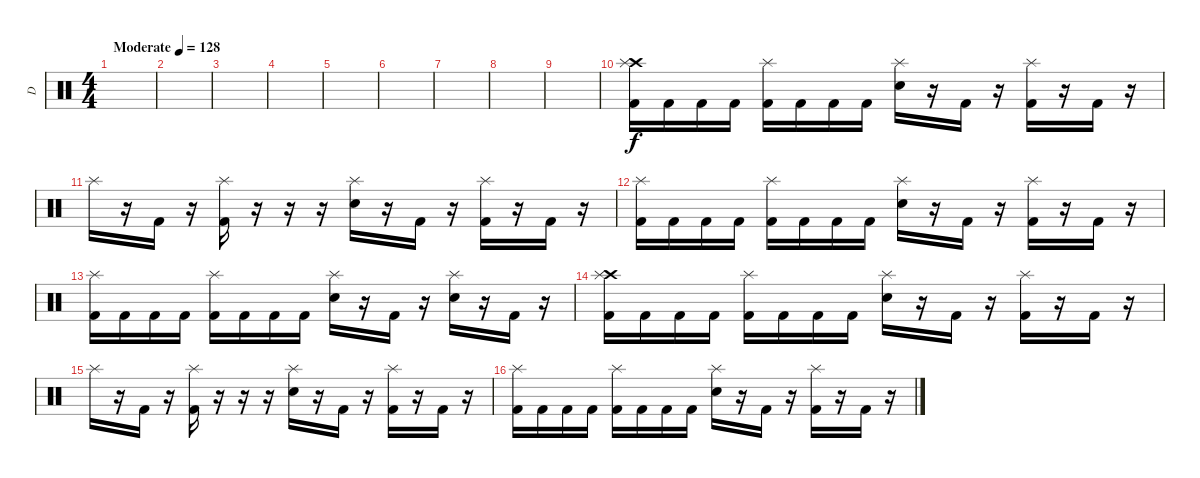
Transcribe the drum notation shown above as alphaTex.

\track ("D" "D") {instrument percussion}
\staff {score}
\articulation defaults
\ts (4 4)
\tempo (128 "Moderate")
\clef neutral
\ks c
|
|
|
|
|
|
|
|
|
("Crash high (hit)" "Kick (hit) 2" "Splash (hit)").16 "Kick (hit) 2".16 "Kick (hit) 2".16 "Kick (hit) 2".16 ("Kick (hit) 2" "Splash (hit)").16 "Kick (hit) 2".16 "Kick (hit) 2".16 "Kick (hit) 2".16 ("Electric Snare (hit)" "Splash (hit)").16 r.16 "Kick (hit) 2".16 r.16 ("Kick (hit) 2" "Splash (hit)").16 r.16 "Kick (hit) 2".16 r.16 |
"Splash (hit)".16 r.16 "Kick (hit) 2".16 r.16 ("Kick (hit) 2" "Splash (hit)").16 r.16 r.16 r.16 ("Electric Snare (hit)" "Splash (hit)").16 r.16 "Kick (hit) 2".16 r.16 ("Kick (hit) 2" "Splash (hit)").16 r.16 "Kick (hit) 2".16 r.16 |
("Kick (hit) 2" "Splash (hit)").16 "Kick (hit) 2".16 "Kick (hit) 2".16 "Kick (hit) 2".16 ("Kick (hit) 2" "Splash (hit)").16 "Kick (hit) 2".16 "Kick (hit) 2".16 "Kick (hit) 2".16 ("Electric Snare (hit)" "Splash (hit)").16 r.16 "Kick (hit) 2".16 r.16 ("Kick (hit) 2" "Splash (hit)").16 r.16 "Kick (hit) 2".16 r.16 |
("Kick (hit) 2" "Splash (hit)").16 "Kick (hit) 2".16 "Kick (hit) 2".16 "Kick (hit) 2".16 ("Kick (hit) 2" "Splash (hit)").16 "Kick (hit) 2".16 "Kick (hit) 2".16 "Kick (hit) 2".16 ("Electric Snare (hit)" "Splash (hit)").16 r.16 "Kick (hit) 2".16 r.16 ("Electric Snare (hit)" "Splash (hit)").16 r.16 "Kick (hit) 2".16 r.16 |
("Crash high (hit)" "Kick (hit) 2" "Splash (hit)").16 "Kick (hit) 2".16 "Kick (hit) 2".16 "Kick (hit) 2".16 ("Kick (hit) 2" "Splash (hit)").16 "Kick (hit) 2".16 "Kick (hit) 2".16 "Kick (hit) 2".16 ("Electric Snare (hit)" "Splash (hit)").16 r.16 "Kick (hit) 2".16 r.16 ("Kick (hit) 2" "Splash (hit)").16 r.16 "Kick (hit) 2".16 r.16 |
"Splash (hit)".16 r.16 "Kick (hit) 2".16 r.16 ("Kick (hit) 2" "Splash (hit)").16 r.16 r.16 r.16 ("Electric Snare (hit)" "Splash (hit)").16 r.16 "Kick (hit) 2".16 r.16 ("Kick (hit) 2" "Splash (hit)").16 r.16 "Kick (hit) 2".16 r.16 |
("Kick (hit) 2" "Splash (hit)").16 "Kick (hit) 2".16 "Kick (hit) 2".16 "Kick (hit) 2".16 ("Kick (hit) 2" "Splash (hit)").16 "Kick (hit) 2".16 "Kick (hit) 2".16 "Kick (hit) 2".16 ("Electric Snare (hit)" "Splash (hit)").16 r.16 "Kick (hit) 2".16 r.16 ("Kick (hit) 2" "Splash (hit)").16 r.16 "Kick (hit) 2".16 r.16
